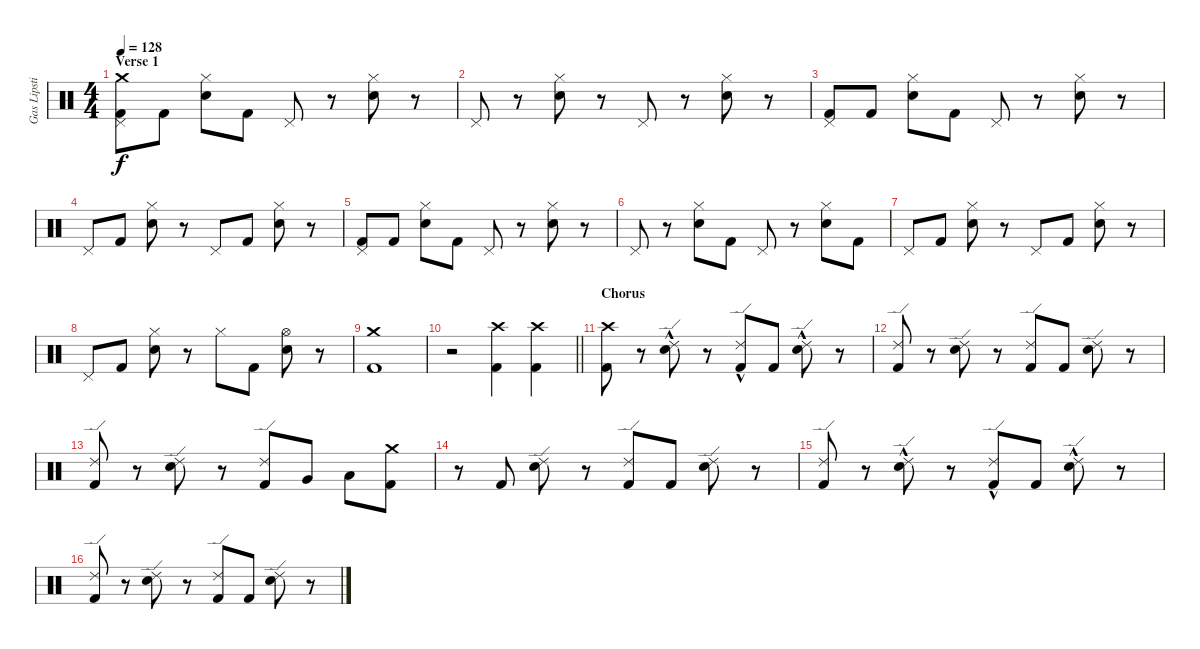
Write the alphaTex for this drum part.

\track ("Gas Lipstick (Drums)" "Gas Lipsti") {instrument percussion}
\staff {score}
\articulation defaults
\ts (4 4)
\section ("" "Verse 1")
\tempo 128
\clef neutral
\ks c
("Crash medium (hit)" "Pedal Hi-Hat (hit)" "Kick (hit) 2").8{dy f} "Kick (hit) 2".8 ("Hi-Hat (closed)" "Snare (hit) 2").8 "Kick (hit) 2".8 "Pedal Hi-Hat (hit)".8 r.8 ("Hi-Hat (closed)" "Snare (hit) 2").8 r.8 |
"Pedal Hi-Hat (hit)".8 r.8 ("Hi-Hat (closed)" "Snare (hit) 2").8 r.8 "Pedal Hi-Hat (hit)".8 r.8 ("Hi-Hat (closed)" "Snare (hit) 2").8 r.8 |
("Pedal Hi-Hat (hit)" "Kick (hit) 2").8 "Kick (hit) 2".8 ("Hi-Hat (closed)" "Snare (hit) 2").8 "Kick (hit) 2".8 "Pedal Hi-Hat (hit)".8 r.8 ("Hi-Hat (closed)" "Snare (hit) 2").8 r.8 |
"Pedal Hi-Hat (hit)".8 "Kick (hit) 2".8 ("Hi-Hat (closed)" "Snare (hit) 2").8 r.8 "Pedal Hi-Hat (hit)".8 "Kick (hit) 2".8 ("Hi-Hat (closed)" "Snare (hit) 2").8 r.8 |
("Pedal Hi-Hat (hit)" "Kick (hit) 2").8 "Kick (hit) 2".8 ("Hi-Hat (closed)" "Snare (hit) 2").8 "Kick (hit) 2".8 "Pedal Hi-Hat (hit)".8 r.8 ("Hi-Hat (closed)" "Snare (hit) 2").8 r.8 |
"Pedal Hi-Hat (hit)".8 r.8 ("Hi-Hat (closed)" "Snare (hit) 2").8 "Kick (hit) 2".8 "Pedal Hi-Hat (hit)".8 r.8 ("Hi-Hat (closed)" "Snare (hit) 2").8 "Kick (hit) 2".8 |
"Pedal Hi-Hat (hit)".8 "Kick (hit) 2".8 ("Hi-Hat (closed)" "Snare (hit) 2").8 r.8 "Pedal Hi-Hat (hit)".8 "Kick (hit) 2".8 ("Hi-Hat (closed)" "Snare (hit) 2").8 r.8 |
"Pedal Hi-Hat (hit)".8 "Kick (hit) 2".8 ("Hi-Hat (closed)" "Snare (hit) 2").8 r.8 "Hi-Hat (closed)".8 "Kick (hit) 2".8 ("Hi-Hat (open)" "Snare (hit) 2").8 r.8 |
("Crash medium (hit)" "Kick (hit) 2").1 |
\barLineRight lightlight
r.2 ("Crash high (hit)" "Kick (hit) 2").4 ("Crash high (hit)" "Kick (hit) 2").4 |
\section ("" "Chorus")
("Crash high (hit)" "Kick (hit) 2").8 r.8 ("Ride (edge) 2"{hac} "Snare (hit) 2").8 r.8 ("Ride (edge) 2"{hac} "Kick (hit) 2").8 "Kick (hit) 2".8 ("Ride (edge) 2"{hac} "Snare (hit) 2").8 r.8 |
("Ride (edge) 2" "Kick (hit) 2").8 r.8 ("Ride (edge) 2" "Snare (hit) 2").8 r.8 ("Ride (edge) 2" "Kick (hit) 2").8 "Kick (hit) 2".8 ("Ride (edge) 2" "Snare (hit) 2").8 r.8 |
("Ride (edge) 2" "Kick (hit) 2").8 r.8 ("Ride (edge) 2" "Snare (hit) 2").8 r.8 ("Ride (edge) 2" "Kick (hit) 2").8 "Very Low Tom (hit)".8 "Low Floor Tom (hit)".8 ("Crash medium (hit)" "Kick (hit) 2").8 |
r.8 "Kick (hit) 2".8 ("Ride (edge) 2" "Snare (hit) 2").8 r.8 ("Ride (edge) 2" "Kick (hit) 2").8 "Kick (hit) 2".8 ("Ride (edge) 2" "Snare (hit) 2").8 r.8 |
("Ride (edge) 2" "Kick (hit) 2").8 r.8 ("Ride (edge) 2"{hac} "Snare (hit) 2").8 r.8 ("Ride (edge) 2"{hac} "Kick (hit) 2").8 "Kick (hit) 2".8 ("Ride (edge) 2"{hac} "Snare (hit) 2").8 r.8 |
("Ride (edge) 2" "Kick (hit) 2").8 r.8 ("Ride (edge) 2" "Snare (hit) 2").8 r.8 ("Ride (edge) 2" "Kick (hit) 2").8 "Kick (hit) 2".8 ("Ride (edge) 2" "Snare (hit) 2").8 r.8
